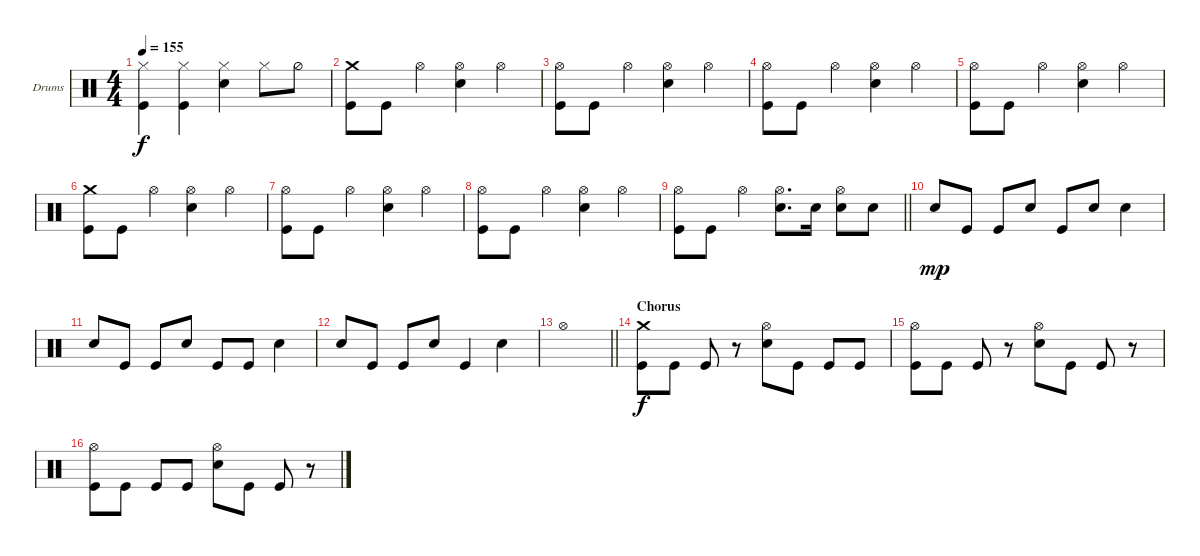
\defaultSystemsLayout 4
\bracketExtendMode groupsimilarinstruments
\firstSystemTrackNameOrientation horizontal
\otherSystemsTrackNameOrientation horizontal
\track ("Drumkit" "Drums") {instrument percussion}
\staff {score}
\articulation defaults
\ts (4 4)
\tempo 155
\clef neutral
\ks c
("Hi-Hat (closed)" "Kick (hit)").4{dy f} ("Hi-Hat (closed)" "Kick (hit)").4 ("Hi-Hat (closed)" "Snare (hit) 2").4 "Hi-Hat (closed)".8 "Hi-Hat (half)".8 |
("Crash medium (hit)" "Kick (hit)").8 "Kick (hit)".8 "Hi-Hat (open)".4 ("Snare (hit) 2" "Hi-Hat (open)").4 "Hi-Hat (open)".4 |
("Kick (hit)" "Hi-Hat (open)").8 "Kick (hit)".8 "Hi-Hat (open)".4 ("Hi-Hat (open)" "Snare (hit) 2").4 "Hi-Hat (open)".4 |
("Kick (hit)" "Hi-Hat (open)").8 "Kick (hit)".8 "Hi-Hat (open)".4 ("Hi-Hat (open)" "Snare (hit) 2").4 "Hi-Hat (open)".4 |
("Kick (hit)" "Hi-Hat (open)").8 "Kick (hit)".8 "Hi-Hat (open)".4 ("Hi-Hat (open)" "Snare (hit) 2").4 "Hi-Hat (open)".4 |
("Crash medium (hit)" "Kick (hit)").8 "Kick (hit)".8 "Hi-Hat (open)".4 ("Snare (hit) 2" "Hi-Hat (open)").4 "Hi-Hat (open)".4 |
("Kick (hit)" "Hi-Hat (open)").8 "Kick (hit)".8 "Hi-Hat (open)".4 ("Hi-Hat (open)" "Snare (hit) 2").4 "Hi-Hat (open)".4 |
("Kick (hit)" "Hi-Hat (open)").8 "Kick (hit)".8 "Hi-Hat (open)".4 ("Hi-Hat (open)" "Snare (hit) 2").4 "Hi-Hat (open)".4 |
\barLineRight lightlight
("Kick (hit)" "Hi-Hat (open)").8 "Kick (hit)".8 "Hi-Hat (open)".4 ("Hi-Hat (open)" "Snare (hit) 2").8{d} "Snare (hit) 2".16 ("Hi-Hat (open)" "Snare (hit) 2").8 "Snare (hit) 2".8 |
"Snare (hit) 2".8{dy mp} "Kick (hit)".8 "Kick (hit)".8 "Snare (hit) 2".8 "Kick (hit)".8 "Snare (hit) 2".8 "Snare (hit) 2".4 |
"Snare (hit) 2".8 "Kick (hit)".8 "Kick (hit)".8 "Snare (hit) 2".8 "Kick (hit)".8 "Kick (hit)".8 "Snare (hit) 2".4 |
"Snare (hit) 2".8 "Kick (hit)".8 "Kick (hit)".8 "Snare (hit) 2".8 "Kick (hit)".4 "Snare (hit) 2".4 |
\barLineRight lightlight "Hi-Hat (open)".1
|
\section ("" "Chorus")
("Crash medium (hit)" "Kick (hit)").8{dy f} "Kick (hit)".8 "Kick (hit)".8 r.8 ("Snare (hit) 2" "Hi-Hat (open)").8 "Kick (hit)".8 "Kick (hit)".8 "Kick (hit)".8 |
("Kick (hit)" "Hi-Hat (open)").8 "Kick (hit)".8 "Kick (hit)".8 r.8 ("Snare (hit) 2" "Hi-Hat (open)").8 "Kick (hit)".8 "Kick (hit)".8 r.8 |
("Kick (hit)" "Hi-Hat (open)").8 "Kick (hit)".8 "Kick (hit)".8 "Kick (hit)".8 ("Snare (hit) 2" "Hi-Hat (open)").8 "Kick (hit)".8 "Kick (hit)".8 r.8
